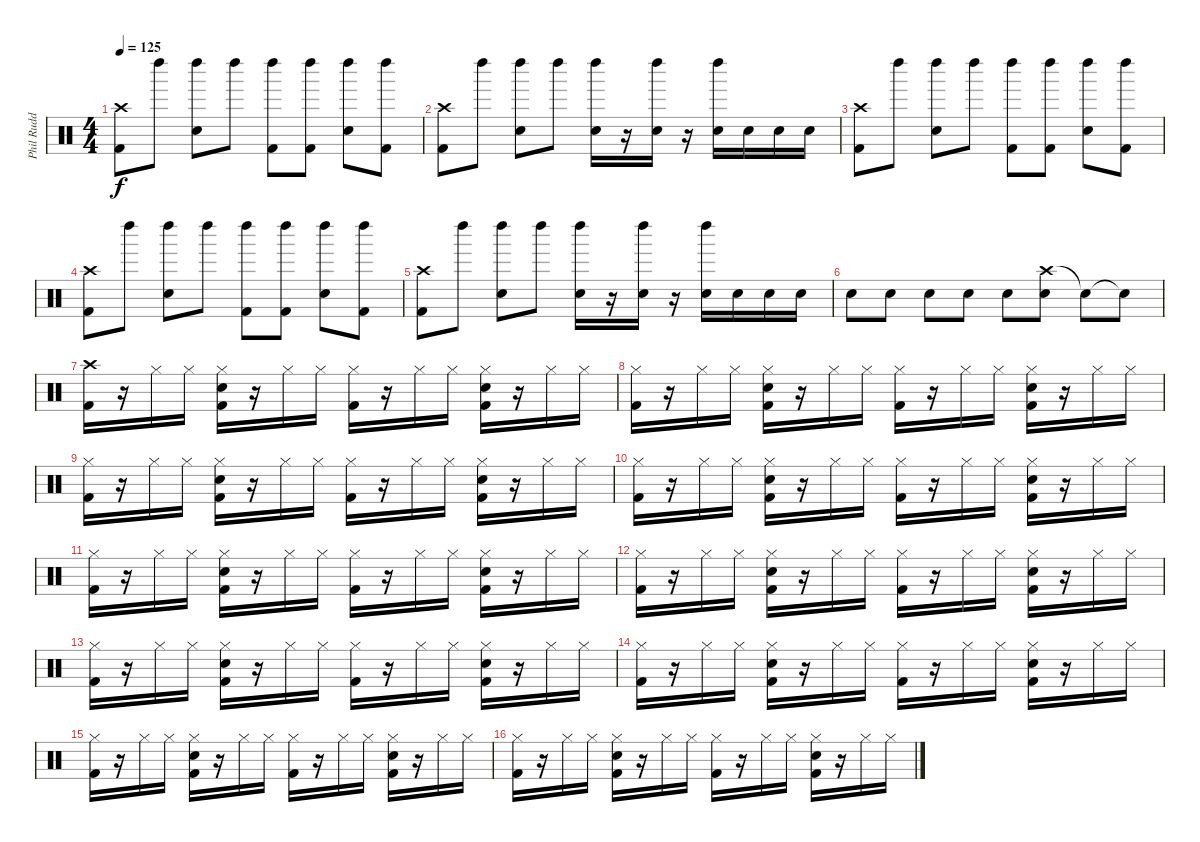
\track ("Phil Rudd" "Phil Rudd") {instrument percussion}
\staff {score}
\articulation defaults
\ts (4 4)
\tempo 125
\clef neutral
\ks c
("Crash high (hit)" "Kick (hit) 2").8{dy f} "Left Maraca (hit)".8 ("Left Maraca (hit)" "Snare (hit) 2").8 "Left Maraca (hit)".8 ("Left Maraca (hit)" "Kick (hit) 2").8 ("Left Maraca (hit)" "Kick (hit) 2").8 ("Left Maraca (hit)" "Snare (hit) 2").8 ("Left Maraca (hit)" "Kick (hit) 2").8 |
("Crash high (hit)" "Kick (hit) 2").8 "Left Maraca (hit)".8 ("Left Maraca (hit)" "Snare (hit) 2").8 "Left Maraca (hit)".8 ("Left Maraca (hit)" "Snare (hit) 2").16 r.16 ("Left Maraca (hit)" "Snare (hit) 2").16 r.16 ("Left Maraca (hit)" "Snare (hit) 2").16 "Snare (hit) 2".16 "Snare (hit) 2".16 "Snare (hit) 2".16 |
("Crash high (hit)" "Kick (hit) 2").8 "Left Maraca (hit)".8 ("Left Maraca (hit)" "Snare (hit) 2").8 "Left Maraca (hit)".8 ("Left Maraca (hit)" "Kick (hit) 2").8 ("Left Maraca (hit)" "Kick (hit) 2").8 ("Left Maraca (hit)" "Snare (hit) 2").8 ("Left Maraca (hit)" "Kick (hit) 2").8 |
("Crash high (hit)" "Kick (hit) 2").8 "Left Maraca (hit)".8 ("Left Maraca (hit)" "Snare (hit) 2").8 "Left Maraca (hit)".8 ("Left Maraca (hit)" "Kick (hit) 2").8 ("Left Maraca (hit)" "Kick (hit) 2").8 ("Left Maraca (hit)" "Snare (hit) 2").8 ("Left Maraca (hit)" "Kick (hit) 2").8 |
("Crash high (hit)" "Kick (hit) 2").8 "Left Maraca (hit)".8 ("Left Maraca (hit)" "Snare (hit) 2").8 "Left Maraca (hit)".8 ("Left Maraca (hit)" "Snare (hit) 2").16 r.16 ("Left Maraca (hit)" "Snare (hit) 2").16 r.16 ("Left Maraca (hit)" "Snare (hit) 2").16 "Snare (hit) 2".16 "Snare (hit) 2".16 "Snare (hit) 2".16 |
"Snare (hit) 2".8 "Snare (hit) 2".8 "Snare (hit) 2".8 "Snare (hit) 2".8 "Snare (hit) 2".8 ("Crash high (hit)" "Snare (hit) 2").8 "Snare (hit)"{t}.8 "Snare (hit)"{t}.8 |
("Crash high (hit)" "Kick (hit) 2").16 r.16 "Hi-Hat (closed)".16 "Hi-Hat (closed)".16 ("Hi-Hat (closed)" "Snare (hit) 2" "Kick (hit) 2").16 r.16 "Hi-Hat (closed)".16 "Hi-Hat (closed)".16 ("Hi-Hat (closed)" "Kick (hit) 2").16 r.16 "Hi-Hat (closed)".16 "Hi-Hat (closed)".16 ("Hi-Hat (closed)" "Snare (hit) 2" "Kick (hit) 2").16 r.16 "Hi-Hat (closed)".16 "Hi-Hat (closed)".16 |
("Hi-Hat (closed)" "Kick (hit) 2").16 r.16 "Hi-Hat (closed)".16 "Hi-Hat (closed)".16 ("Hi-Hat (closed)" "Snare (hit) 2" "Kick (hit) 2").16 r.16 "Hi-Hat (closed)".16 "Hi-Hat (closed)".16 ("Hi-Hat (closed)" "Kick (hit) 2").16 r.16 "Hi-Hat (closed)".16 "Hi-Hat (closed)".16 ("Hi-Hat (closed)" "Snare (hit) 2" "Kick (hit) 2").16 r.16 "Hi-Hat (closed)".16 "Hi-Hat (closed)".16 |
("Hi-Hat (closed)" "Kick (hit) 2").16 r.16 "Hi-Hat (closed)".16 "Hi-Hat (closed)".16 ("Hi-Hat (closed)" "Snare (hit) 2" "Kick (hit) 2").16 r.16 "Hi-Hat (closed)".16 "Hi-Hat (closed)".16 ("Hi-Hat (closed)" "Kick (hit) 2").16 r.16 "Hi-Hat (closed)".16 "Hi-Hat (closed)".16 ("Hi-Hat (closed)" "Snare (hit) 2" "Kick (hit) 2").16 r.16 "Hi-Hat (closed)".16 "Hi-Hat (closed)".16 |
("Hi-Hat (closed)" "Kick (hit) 2").16 r.16 "Hi-Hat (closed)".16 "Hi-Hat (closed)".16 ("Hi-Hat (closed)" "Snare (hit) 2" "Kick (hit) 2").16 r.16 "Hi-Hat (closed)".16 "Hi-Hat (closed)".16 ("Hi-Hat (closed)" "Kick (hit) 2").16 r.16 "Hi-Hat (closed)".16 "Hi-Hat (closed)".16 ("Hi-Hat (closed)" "Snare (hit) 2" "Kick (hit) 2").16 r.16 "Hi-Hat (closed)".16 "Hi-Hat (closed)".16 |
("Hi-Hat (closed)" "Kick (hit) 2").16 r.16 "Hi-Hat (closed)".16 "Hi-Hat (closed)".16 ("Hi-Hat (closed)" "Snare (hit) 2" "Kick (hit) 2").16 r.16 "Hi-Hat (closed)".16 "Hi-Hat (closed)".16 ("Hi-Hat (closed)" "Kick (hit) 2").16 r.16 "Hi-Hat (closed)".16 "Hi-Hat (closed)".16 ("Hi-Hat (closed)" "Snare (hit) 2" "Kick (hit) 2").16 r.16 "Hi-Hat (closed)".16 "Hi-Hat (closed)".16 |
("Hi-Hat (closed)" "Kick (hit) 2").16 r.16 "Hi-Hat (closed)".16 "Hi-Hat (closed)".16 ("Hi-Hat (closed)" "Snare (hit) 2" "Kick (hit) 2").16 r.16 "Hi-Hat (closed)".16 "Hi-Hat (closed)".16 ("Hi-Hat (closed)" "Kick (hit) 2").16 r.16 "Hi-Hat (closed)".16 "Hi-Hat (closed)".16 ("Hi-Hat (closed)" "Snare (hit) 2" "Kick (hit) 2").16 r.16 "Hi-Hat (closed)".16 "Hi-Hat (closed)".16 |
("Hi-Hat (closed)" "Kick (hit) 2").16 r.16 "Hi-Hat (closed)".16 "Hi-Hat (closed)".16 ("Hi-Hat (closed)" "Snare (hit) 2" "Kick (hit) 2").16 r.16 "Hi-Hat (closed)".16 "Hi-Hat (closed)".16 ("Hi-Hat (closed)" "Kick (hit) 2").16 r.16 "Hi-Hat (closed)".16 "Hi-Hat (closed)".16 ("Hi-Hat (closed)" "Snare (hit) 2" "Kick (hit) 2").16 r.16 "Hi-Hat (closed)".16 "Hi-Hat (closed)".16 |
("Hi-Hat (closed)" "Kick (hit) 2").16 r.16 "Hi-Hat (closed)".16 "Hi-Hat (closed)".16 ("Hi-Hat (closed)" "Snare (hit) 2" "Kick (hit) 2").16 r.16 "Hi-Hat (closed)".16 "Hi-Hat (closed)".16 ("Hi-Hat (closed)" "Kick (hit) 2").16 r.16 "Hi-Hat (closed)".16 "Hi-Hat (closed)".16 ("Hi-Hat (closed)" "Snare (hit) 2" "Kick (hit) 2").16 r.16 "Hi-Hat (closed)".16 "Hi-Hat (closed)".16 |
("Hi-Hat (closed)" "Kick (hit) 2").16 r.16 "Hi-Hat (closed)".16 "Hi-Hat (closed)".16 ("Hi-Hat (closed)" "Snare (hit) 2" "Kick (hit) 2").16 r.16 "Hi-Hat (closed)".16 "Hi-Hat (closed)".16 ("Hi-Hat (closed)" "Kick (hit) 2").16 r.16 "Hi-Hat (closed)".16 "Hi-Hat (closed)".16 ("Hi-Hat (closed)" "Snare (hit) 2" "Kick (hit) 2").16 r.16 "Hi-Hat (closed)".16 "Hi-Hat (closed)".16 |
("Hi-Hat (closed)" "Kick (hit) 2").16 r.16 "Hi-Hat (closed)".16 "Hi-Hat (closed)".16 ("Hi-Hat (closed)" "Snare (hit) 2" "Kick (hit) 2").16 r.16 "Hi-Hat (closed)".16 "Hi-Hat (closed)".16 ("Hi-Hat (closed)" "Kick (hit) 2").16 r.16 "Hi-Hat (closed)".16 "Hi-Hat (closed)".16 ("Hi-Hat (closed)" "Snare (hit) 2" "Kick (hit) 2").16 r.16 "Hi-Hat (closed)".16 "Hi-Hat (closed)".16
